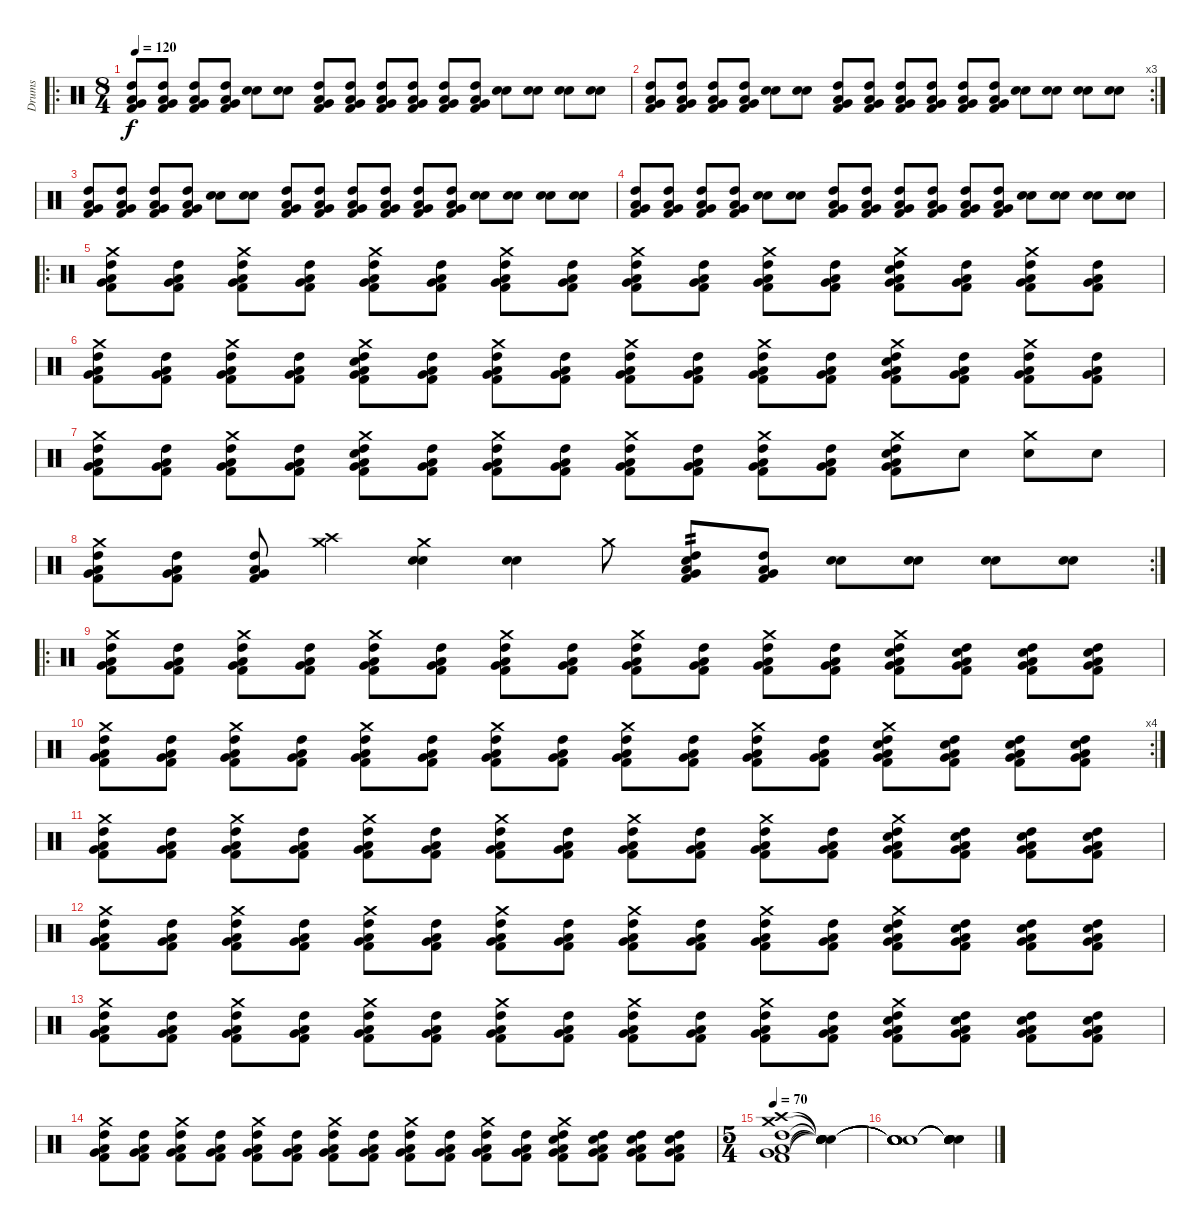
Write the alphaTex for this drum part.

\track ("Drums" "Drums") {instrument percussion}
\staff {score}
\articulation defaults
\ro
\ts (8 4)
\tempo 120
\clef neutral
\ks c
("High Tom (hit)" "Low Tom (hit)" "Very Low Tom (hit)" "Kick (hit) 2").8{dy f} ("High Tom (hit)" "Low Tom (hit)" "Very Low Tom (hit)" "Kick (hit) 2").8 ("High Tom (hit)" "Low Tom (hit)" "Very Low Tom (hit)" "Kick (hit) 2").8 ("High Tom (hit)" "Low Tom (hit)" "Very Low Tom (hit)" "Kick (hit) 2").8 ("Snare (hit) 2" "Electric Snare (hit)").8 ("Snare (hit) 2" "Electric Snare (hit)").8 ("High Tom (hit)" "Low Tom (hit)" "Very Low Tom (hit)" "Kick (hit) 2").8 ("High Tom (hit)" "Low Tom (hit)" "Very Low Tom (hit)" "Kick (hit) 2").8 ("High Tom (hit)" "Low Tom (hit)" "Very Low Tom (hit)" "Kick (hit) 2").8 ("High Tom (hit)" "Low Tom (hit)" "Very Low Tom (hit)" "Kick (hit) 2").8 ("High Tom (hit)" "Low Tom (hit)" "Very Low Tom (hit)" "Kick (hit) 2").8 ("High Tom (hit)" "Low Tom (hit)" "Very Low Tom (hit)" "Kick (hit) 2").8 ("Snare (hit) 2" "Electric Snare (hit)").8 ("Snare (hit) 2" "Electric Snare (hit)").8 ("Snare (hit) 2" "Electric Snare (hit)").8 ("Snare (hit) 2" "Electric Snare (hit)").8 |
\rc 3
("High Tom (hit)" "Low Tom (hit)" "Very Low Tom (hit)" "Kick (hit) 2").8 ("High Tom (hit)" "Low Tom (hit)" "Very Low Tom (hit)" "Kick (hit) 2").8 ("High Tom (hit)" "Low Tom (hit)" "Very Low Tom (hit)" "Kick (hit) 2").8 ("High Tom (hit)" "Low Tom (hit)" "Very Low Tom (hit)" "Kick (hit) 2").8 ("Snare (hit) 2" "Electric Snare (hit)").8 ("Snare (hit) 2" "Electric Snare (hit)").8 ("High Tom (hit)" "Low Tom (hit)" "Very Low Tom (hit)" "Kick (hit) 2").8 ("High Tom (hit)" "Low Tom (hit)" "Very Low Tom (hit)" "Kick (hit) 2").8 ("High Tom (hit)" "Low Tom (hit)" "Very Low Tom (hit)" "Kick (hit) 2").8 ("High Tom (hit)" "Low Tom (hit)" "Very Low Tom (hit)" "Kick (hit) 2").8 ("High Tom (hit)" "Low Tom (hit)" "Very Low Tom (hit)" "Kick (hit) 2").8 ("High Tom (hit)" "Low Tom (hit)" "Very Low Tom (hit)" "Kick (hit) 2").8 ("Snare (hit) 2" "Electric Snare (hit)").8 ("Snare (hit) 2" "Electric Snare (hit)").8 ("Snare (hit) 2" "Electric Snare (hit)").8 ("Snare (hit) 2" "Electric Snare (hit)").8 |
("High Tom (hit)" "Low Tom (hit)" "Very Low Tom (hit)" "Kick (hit) 2").8 ("High Tom (hit)" "Low Tom (hit)" "Very Low Tom (hit)" "Kick (hit) 2").8 ("High Tom (hit)" "Low Tom (hit)" "Very Low Tom (hit)" "Kick (hit) 2").8 ("High Tom (hit)" "Low Tom (hit)" "Very Low Tom (hit)" "Kick (hit) 2").8 ("Snare (hit) 2" "Electric Snare (hit)").8 ("Snare (hit) 2" "Electric Snare (hit)").8 ("High Tom (hit)" "Low Tom (hit)" "Very Low Tom (hit)" "Kick (hit) 2").8 ("High Tom (hit)" "Low Tom (hit)" "Very Low Tom (hit)" "Kick (hit) 2").8 ("High Tom (hit)" "Low Tom (hit)" "Very Low Tom (hit)" "Kick (hit) 2").8 ("High Tom (hit)" "Low Tom (hit)" "Very Low Tom (hit)" "Kick (hit) 2").8 ("High Tom (hit)" "Low Tom (hit)" "Very Low Tom (hit)" "Kick (hit) 2").8 ("High Tom (hit)" "Low Tom (hit)" "Very Low Tom (hit)" "Kick (hit) 2").8 ("Snare (hit) 2" "Electric Snare (hit)").8 ("Snare (hit) 2" "Electric Snare (hit)").8 ("Snare (hit) 2" "Electric Snare (hit)").8 ("Snare (hit) 2" "Electric Snare (hit)").8 |
("High Tom (hit)" "Low Tom (hit)" "Very Low Tom (hit)" "Kick (hit) 2").8 ("High Tom (hit)" "Low Tom (hit)" "Very Low Tom (hit)" "Kick (hit) 2").8 ("High Tom (hit)" "Low Tom (hit)" "Very Low Tom (hit)" "Kick (hit) 2").8 ("High Tom (hit)" "Low Tom (hit)" "Very Low Tom (hit)" "Kick (hit) 2").8 ("Snare (hit) 2" "Electric Snare (hit)").8 ("Snare (hit) 2" "Electric Snare (hit)").8 ("High Tom (hit)" "Low Tom (hit)" "Very Low Tom (hit)" "Kick (hit) 2").8 ("High Tom (hit)" "Low Tom (hit)" "Very Low Tom (hit)" "Kick (hit) 2").8 ("High Tom (hit)" "Low Tom (hit)" "Very Low Tom (hit)" "Kick (hit) 2").8 ("High Tom (hit)" "Low Tom (hit)" "Very Low Tom (hit)" "Kick (hit) 2").8 ("High Tom (hit)" "Low Tom (hit)" "Very Low Tom (hit)" "Kick (hit) 2").8 ("High Tom (hit)" "Low Tom (hit)" "Very Low Tom (hit)" "Kick (hit) 2").8 ("Snare (hit) 2" "Electric Snare (hit)").8 ("Snare (hit) 2" "Electric Snare (hit)").8 ("Snare (hit) 2" "Electric Snare (hit)").8 ("Snare (hit) 2" "Electric Snare (hit)").8 |
\ro
("Crash medium (hit)" "High Tom (hit)" "Low Tom (hit)" "Very Low Tom (hit)" "Kick (hit) 2").8 ("High Tom (hit)" "Low Tom (hit)" "Very Low Tom (hit)" "Kick (hit) 2").8 ("Crash medium (hit)" "High Tom (hit)" "Low Tom (hit)" "Very Low Tom (hit)" "Kick (hit) 2").8 ("High Tom (hit)" "Low Tom (hit)" "Very Low Tom (hit)" "Kick (hit) 2").8 ("Crash medium (hit)" "High Tom (hit)" "Low Tom (hit)" "Very Low Tom (hit)" "Kick (hit) 2").8 ("High Tom (hit)" "Low Tom (hit)" "Very Low Tom (hit)" "Kick (hit) 2").8 ("Crash medium (hit)" "High Tom (hit)" "Low Tom (hit)" "Very Low Tom (hit)" "Kick (hit) 2").8 ("High Tom (hit)" "Low Tom (hit)" "Very Low Tom (hit)" "Kick (hit) 2").8 ("Crash medium (hit)" "High Tom (hit)" "Low Tom (hit)" "Very Low Tom (hit)" "Kick (hit) 2").8 ("High Tom (hit)" "Low Tom (hit)" "Very Low Tom (hit)" "Kick (hit) 2").8 ("Crash medium (hit)" "High Tom (hit)" "Low Tom (hit)" "Very Low Tom (hit)" "Kick (hit) 2").8 ("High Tom (hit)" "Low Tom (hit)" "Very Low Tom (hit)" "Kick (hit) 2").8 ("Crash medium (hit)" "Snare (hit) 2" "High Tom (hit)" "Low Tom (hit)" "Very Low Tom (hit)" "Kick (hit) 2").8 ("High Tom (hit)" "Low Tom (hit)" "Very Low Tom (hit)" "Kick (hit) 2").8 ("Crash medium (hit)" "High Tom (hit)" "Low Tom (hit)" "Very Low Tom (hit)" "Kick (hit) 2").8 ("High Tom (hit)" "Low Tom (hit)" "Very Low Tom (hit)" "Kick (hit) 2").8 |
("Crash medium (hit)" "High Tom (hit)" "Low Tom (hit)" "Very Low Tom (hit)" "Kick (hit) 2").8 ("High Tom (hit)" "Low Tom (hit)" "Very Low Tom (hit)" "Kick (hit) 2").8 ("Crash medium (hit)" "High Tom (hit)" "Low Tom (hit)" "Very Low Tom (hit)" "Kick (hit) 2").8 ("High Tom (hit)" "Low Tom (hit)" "Very Low Tom (hit)" "Kick (hit) 2").8 ("Crash medium (hit)" "Snare (hit) 2" "High Tom (hit)" "Low Tom (hit)" "Very Low Tom (hit)" "Kick (hit) 2").8 ("High Tom (hit)" "Low Tom (hit)" "Very Low Tom (hit)" "Kick (hit) 2").8 ("Crash medium (hit)" "High Tom (hit)" "Low Tom (hit)" "Very Low Tom (hit)" "Kick (hit) 2").8 ("High Tom (hit)" "Low Tom (hit)" "Very Low Tom (hit)" "Kick (hit) 2").8 ("Crash medium (hit)" "High Tom (hit)" "Low Tom (hit)" "Very Low Tom (hit)" "Kick (hit) 2").8 ("High Tom (hit)" "Low Tom (hit)" "Very Low Tom (hit)" "Kick (hit) 2").8 ("Crash medium (hit)" "High Tom (hit)" "Low Tom (hit)" "Very Low Tom (hit)" "Kick (hit) 2").8 ("High Tom (hit)" "Low Tom (hit)" "Very Low Tom (hit)" "Kick (hit) 2").8 ("Crash medium (hit)" "Snare (hit) 2" "High Tom (hit)" "Low Tom (hit)" "Very Low Tom (hit)" "Kick (hit) 2").8 ("High Tom (hit)" "Low Tom (hit)" "Very Low Tom (hit)" "Kick (hit) 2").8 ("Crash medium (hit)" "High Tom (hit)" "Low Tom (hit)" "Very Low Tom (hit)" "Kick (hit) 2").8 ("High Tom (hit)" "Low Tom (hit)" "Very Low Tom (hit)" "Kick (hit) 2").8 |
("Crash medium (hit)" "High Tom (hit)" "Low Tom (hit)" "Very Low Tom (hit)" "Kick (hit) 2").8 ("High Tom (hit)" "Low Tom (hit)" "Very Low Tom (hit)" "Kick (hit) 2").8 ("Crash medium (hit)" "High Tom (hit)" "Low Tom (hit)" "Very Low Tom (hit)" "Kick (hit) 2").8 ("High Tom (hit)" "Low Tom (hit)" "Very Low Tom (hit)" "Kick (hit) 2").8 ("Crash medium (hit)" "Snare (hit) 2" "High Tom (hit)" "Low Tom (hit)" "Very Low Tom (hit)" "Kick (hit) 2").8 ("High Tom (hit)" "Low Tom (hit)" "Very Low Tom (hit)" "Kick (hit) 2").8 ("Crash medium (hit)" "High Tom (hit)" "Low Tom (hit)" "Very Low Tom (hit)" "Kick (hit) 2").8 ("High Tom (hit)" "Low Tom (hit)" "Very Low Tom (hit)" "Kick (hit) 2").8 ("Crash medium (hit)" "High Tom (hit)" "Low Tom (hit)" "Very Low Tom (hit)" "Kick (hit) 2").8 ("High Tom (hit)" "Low Tom (hit)" "Very Low Tom (hit)" "Kick (hit) 2").8 ("Crash medium (hit)" "High Tom (hit)" "Low Tom (hit)" "Very Low Tom (hit)" "Kick (hit) 2").8 ("High Tom (hit)" "Low Tom (hit)" "Very Low Tom (hit)" "Kick (hit) 2").8 ("Crash medium (hit)" "Snare (hit) 2" "High Tom (hit)" "Low Tom (hit)" "Very Low Tom (hit)" "Kick (hit) 2").8 "Snare (hit) 2".8 ("Crash medium (hit)" "Snare (hit) 2").8 "Snare (hit) 2".8 |
\rc 2
("Crash medium (hit)" "High Tom (hit)" "Low Tom (hit)" "Very Low Tom (hit)" "Kick (hit) 2").8 ("High Tom (hit)" "Low Tom (hit)" "Very Low Tom (hit)" "Kick (hit) 2").8 ("High Tom (hit)" "Low Tom (hit)" "Very Low Tom (hit)" "Kick (hit) 2").8 ("Crash medium (hit)" "Crash high (hit)").4 ("Crash medium (hit)" "Snare (hit) 2" "Electric Snare (hit)").4 ("Snare (hit) 2" "Electric Snare (hit)").4 "Crash medium (hit)".8 ("Snare (hit) 2" "High Tom (hit)" "Low Tom (hit)" "Very Low Tom (hit)" "Kick (hit) 2").8{tp 2} ("High Tom (hit)" "Low Tom (hit)" "Very Low Tom (hit)" "Kick (hit) 2").8 ("Snare (hit) 2" "Electric Snare (hit)").8 ("Snare (hit) 2" "Electric Snare (hit)").8 ("Snare (hit) 2" "Electric Snare (hit)").8 ("Snare (hit) 2" "Electric Snare (hit)").8 |
\ro
("Crash medium (hit)" "High Tom (hit)" "Low Tom (hit)" "Very Low Tom (hit)" "Kick (hit) 2").8 ("High Tom (hit)" "Low Tom (hit)" "Very Low Tom (hit)" "Kick (hit) 2").8 ("Crash medium (hit)" "High Tom (hit)" "Low Tom (hit)" "Very Low Tom (hit)" "Kick (hit) 2").8 ("High Tom (hit)" "Low Tom (hit)" "Very Low Tom (hit)" "Kick (hit) 2").8 ("Crash medium (hit)" "High Tom (hit)" "Low Tom (hit)" "Very Low Tom (hit)" "Kick (hit) 2").8 ("High Tom (hit)" "Low Tom (hit)" "Very Low Tom (hit)" "Kick (hit) 2").8 ("Crash medium (hit)" "High Tom (hit)" "Low Tom (hit)" "Very Low Tom (hit)" "Kick (hit) 2").8 ("High Tom (hit)" "Low Tom (hit)" "Very Low Tom (hit)" "Kick (hit) 2").8 ("Crash medium (hit)" "High Tom (hit)" "Low Tom (hit)" "Very Low Tom (hit)" "Kick (hit) 2").8 ("High Tom (hit)" "Low Tom (hit)" "Very Low Tom (hit)" "Kick (hit) 2").8 ("Crash medium (hit)" "High Tom (hit)" "Low Tom (hit)" "Very Low Tom (hit)" "Kick (hit) 2").8 ("High Tom (hit)" "Low Tom (hit)" "Very Low Tom (hit)" "Kick (hit) 2").8 ("Crash medium (hit)" "Snare (hit) 2" "High Tom (hit)" "Low Tom (hit)" "Very Low Tom (hit)" "Kick (hit) 2").8 ("Snare (hit) 2" "High Tom (hit)" "Low Tom (hit)" "Very Low Tom (hit)" "Kick (hit) 2").8 ("Snare (hit) 2" "High Tom (hit)" "Low Tom (hit)" "Very Low Tom (hit)" "Kick (hit) 2").8 ("Snare (hit) 2" "High Tom (hit)" "Low Tom (hit)" "Very Low Tom (hit)" "Kick (hit) 2").8 |
\rc 4
("Crash medium (hit)" "High Tom (hit)" "Low Tom (hit)" "Very Low Tom (hit)" "Kick (hit) 2").8 ("High Tom (hit)" "Low Tom (hit)" "Very Low Tom (hit)" "Kick (hit) 2").8 ("Crash medium (hit)" "High Tom (hit)" "Low Tom (hit)" "Very Low Tom (hit)" "Kick (hit) 2").8 ("High Tom (hit)" "Low Tom (hit)" "Very Low Tom (hit)" "Kick (hit) 2").8 ("Crash medium (hit)" "High Tom (hit)" "Low Tom (hit)" "Very Low Tom (hit)" "Kick (hit) 2").8 ("High Tom (hit)" "Low Tom (hit)" "Very Low Tom (hit)" "Kick (hit) 2").8 ("Crash medium (hit)" "High Tom (hit)" "Low Tom (hit)" "Very Low Tom (hit)" "Kick (hit) 2").8 ("High Tom (hit)" "Low Tom (hit)" "Very Low Tom (hit)" "Kick (hit) 2").8 ("Crash medium (hit)" "High Tom (hit)" "Low Tom (hit)" "Very Low Tom (hit)" "Kick (hit) 2").8 ("High Tom (hit)" "Low Tom (hit)" "Very Low Tom (hit)" "Kick (hit) 2").8 ("Crash medium (hit)" "High Tom (hit)" "Low Tom (hit)" "Very Low Tom (hit)" "Kick (hit) 2").8 ("High Tom (hit)" "Low Tom (hit)" "Very Low Tom (hit)" "Kick (hit) 2").8 ("Crash medium (hit)" "Snare (hit) 2" "High Tom (hit)" "Low Tom (hit)" "Very Low Tom (hit)" "Kick (hit) 2").8 ("Snare (hit) 2" "High Tom (hit)" "Low Tom (hit)" "Very Low Tom (hit)" "Kick (hit) 2").8 ("Snare (hit) 2" "High Tom (hit)" "Low Tom (hit)" "Very Low Tom (hit)" "Kick (hit) 2").8 ("Snare (hit) 2" "High Tom (hit)" "Low Tom (hit)" "Very Low Tom (hit)" "Kick (hit) 2").8 |
("Crash medium (hit)" "High Tom (hit)" "Low Tom (hit)" "Very Low Tom (hit)" "Kick (hit) 2").8 ("High Tom (hit)" "Low Tom (hit)" "Very Low Tom (hit)" "Kick (hit) 2").8 ("Crash medium (hit)" "High Tom (hit)" "Low Tom (hit)" "Very Low Tom (hit)" "Kick (hit) 2").8 ("High Tom (hit)" "Low Tom (hit)" "Very Low Tom (hit)" "Kick (hit) 2").8 ("Crash medium (hit)" "High Tom (hit)" "Low Tom (hit)" "Very Low Tom (hit)" "Kick (hit) 2").8 ("High Tom (hit)" "Low Tom (hit)" "Very Low Tom (hit)" "Kick (hit) 2").8 ("Crash medium (hit)" "High Tom (hit)" "Low Tom (hit)" "Very Low Tom (hit)" "Kick (hit) 2").8 ("High Tom (hit)" "Low Tom (hit)" "Very Low Tom (hit)" "Kick (hit) 2").8 ("Crash medium (hit)" "High Tom (hit)" "Low Tom (hit)" "Very Low Tom (hit)" "Kick (hit) 2").8 ("High Tom (hit)" "Low Tom (hit)" "Very Low Tom (hit)" "Kick (hit) 2").8 ("Crash medium (hit)" "High Tom (hit)" "Low Tom (hit)" "Very Low Tom (hit)" "Kick (hit) 2").8 ("High Tom (hit)" "Low Tom (hit)" "Very Low Tom (hit)" "Kick (hit) 2").8 ("Crash medium (hit)" "Snare (hit) 2" "High Tom (hit)" "Low Tom (hit)" "Very Low Tom (hit)" "Kick (hit) 2").8 ("Snare (hit) 2" "High Tom (hit)" "Low Tom (hit)" "Very Low Tom (hit)" "Kick (hit) 2").8 ("Snare (hit) 2" "High Tom (hit)" "Low Tom (hit)" "Very Low Tom (hit)" "Kick (hit) 2").8 ("Snare (hit) 2" "High Tom (hit)" "Low Tom (hit)" "Very Low Tom (hit)" "Kick (hit) 2").8 |
("Crash medium (hit)" "High Tom (hit)" "Low Tom (hit)" "Very Low Tom (hit)" "Kick (hit) 2").8 ("High Tom (hit)" "Low Tom (hit)" "Very Low Tom (hit)" "Kick (hit) 2").8 ("Crash medium (hit)" "High Tom (hit)" "Low Tom (hit)" "Very Low Tom (hit)" "Kick (hit) 2").8 ("High Tom (hit)" "Low Tom (hit)" "Very Low Tom (hit)" "Kick (hit) 2").8 ("Crash medium (hit)" "High Tom (hit)" "Low Tom (hit)" "Very Low Tom (hit)" "Kick (hit) 2").8 ("High Tom (hit)" "Low Tom (hit)" "Very Low Tom (hit)" "Kick (hit) 2").8 ("Crash medium (hit)" "High Tom (hit)" "Low Tom (hit)" "Very Low Tom (hit)" "Kick (hit) 2").8 ("High Tom (hit)" "Low Tom (hit)" "Very Low Tom (hit)" "Kick (hit) 2").8 ("Crash medium (hit)" "High Tom (hit)" "Low Tom (hit)" "Very Low Tom (hit)" "Kick (hit) 2").8 ("High Tom (hit)" "Low Tom (hit)" "Very Low Tom (hit)" "Kick (hit) 2").8 ("Crash medium (hit)" "High Tom (hit)" "Low Tom (hit)" "Very Low Tom (hit)" "Kick (hit) 2").8 ("High Tom (hit)" "Low Tom (hit)" "Very Low Tom (hit)" "Kick (hit) 2").8 ("Crash medium (hit)" "Snare (hit) 2" "High Tom (hit)" "Low Tom (hit)" "Very Low Tom (hit)" "Kick (hit) 2").8 ("Snare (hit) 2" "High Tom (hit)" "Low Tom (hit)" "Very Low Tom (hit)" "Kick (hit) 2").8 ("Snare (hit) 2" "High Tom (hit)" "Low Tom (hit)" "Very Low Tom (hit)" "Kick (hit) 2").8 ("Snare (hit) 2" "High Tom (hit)" "Low Tom (hit)" "Very Low Tom (hit)" "Kick (hit) 2").8 |
("Crash medium (hit)" "High Tom (hit)" "Low Tom (hit)" "Very Low Tom (hit)" "Kick (hit) 2").8 ("High Tom (hit)" "Low Tom (hit)" "Very Low Tom (hit)" "Kick (hit) 2").8 ("Crash medium (hit)" "High Tom (hit)" "Low Tom (hit)" "Very Low Tom (hit)" "Kick (hit) 2").8 ("High Tom (hit)" "Low Tom (hit)" "Very Low Tom (hit)" "Kick (hit) 2").8 ("Crash medium (hit)" "High Tom (hit)" "Low Tom (hit)" "Very Low Tom (hit)" "Kick (hit) 2").8 ("High Tom (hit)" "Low Tom (hit)" "Very Low Tom (hit)" "Kick (hit) 2").8 ("Crash medium (hit)" "High Tom (hit)" "Low Tom (hit)" "Very Low Tom (hit)" "Kick (hit) 2").8 ("High Tom (hit)" "Low Tom (hit)" "Very Low Tom (hit)" "Kick (hit) 2").8 ("Crash medium (hit)" "High Tom (hit)" "Low Tom (hit)" "Very Low Tom (hit)" "Kick (hit) 2").8 ("High Tom (hit)" "Low Tom (hit)" "Very Low Tom (hit)" "Kick (hit) 2").8 ("Crash medium (hit)" "High Tom (hit)" "Low Tom (hit)" "Very Low Tom (hit)" "Kick (hit) 2").8 ("High Tom (hit)" "Low Tom (hit)" "Very Low Tom (hit)" "Kick (hit) 2").8 ("Crash medium (hit)" "Snare (hit) 2" "High Tom (hit)" "Low Tom (hit)" "Very Low Tom (hit)" "Kick (hit) 2").8 ("Snare (hit) 2" "High Tom (hit)" "Low Tom (hit)" "Very Low Tom (hit)" "Kick (hit) 2").8 ("Snare (hit) 2" "High Tom (hit)" "Low Tom (hit)" "Very Low Tom (hit)" "Kick (hit) 2").8 ("Snare (hit) 2" "High Tom (hit)" "Low Tom (hit)" "Very Low Tom (hit)" "Kick (hit) 2").8 |
("Crash medium (hit)" "High Tom (hit)" "Low Tom (hit)" "Very Low Tom (hit)" "Kick (hit) 2").8 ("High Tom (hit)" "Low Tom (hit)" "Very Low Tom (hit)" "Kick (hit) 2").8 ("Crash medium (hit)" "High Tom (hit)" "Low Tom (hit)" "Very Low Tom (hit)" "Kick (hit) 2").8 ("High Tom (hit)" "Low Tom (hit)" "Very Low Tom (hit)" "Kick (hit) 2").8 ("Crash medium (hit)" "High Tom (hit)" "Low Tom (hit)" "Very Low Tom (hit)" "Kick (hit) 2").8 ("High Tom (hit)" "Low Tom (hit)" "Very Low Tom (hit)" "Kick (hit) 2").8 ("Crash medium (hit)" "High Tom (hit)" "Low Tom (hit)" "Very Low Tom (hit)" "Kick (hit) 2").8 ("High Tom (hit)" "Low Tom (hit)" "Very Low Tom (hit)" "Kick (hit) 2").8 ("Crash medium (hit)" "High Tom (hit)" "Low Tom (hit)" "Very Low Tom (hit)" "Kick (hit) 2").8 ("High Tom (hit)" "Low Tom (hit)" "Very Low Tom (hit)" "Kick (hit) 2").8 ("Crash medium (hit)" "High Tom (hit)" "Low Tom (hit)" "Very Low Tom (hit)" "Kick (hit) 2").8 ("High Tom (hit)" "Low Tom (hit)" "Very Low Tom (hit)" "Kick (hit) 2").8 ("Crash medium (hit)" "Snare (hit) 2" "High Tom (hit)" "Low Tom (hit)" "Very Low Tom (hit)" "Kick (hit) 2").8 ("Snare (hit) 2" "High Tom (hit)" "Low Tom (hit)" "Very Low Tom (hit)" "Kick (hit) 2").8 ("Snare (hit) 2" "High Tom (hit)" "Low Tom (hit)" "Very Low Tom (hit)" "Kick (hit) 2").8 ("Snare (hit) 2" "High Tom (hit)" "Low Tom (hit)" "Very Low Tom (hit)" "Kick (hit) 2").8 |
\ts (5 4)
\tempo 70
("Crash medium (hit)" "Crash high (hit)" "High Tom (hit)" "Low Tom (hit)" "Very Low Tom (hit)" "Kick (hit) 2").1 ("Snare (hit)"{t} "Snare (hit)"{t} "Snare (hit)"{t} "Snare (hit)"{t} "Snare (hit)"{t} "Snare (hit)"{t}).4 |
("Snare (hit)"{t} "Snare (hit)"{t} "Snare (hit)"{t} "Snare (hit)"{t} "Snare (hit)"{t} "Snare (hit)"{t}).1 ("Snare (hit)"{t} "Snare (hit)"{t} "Snare (hit)"{t} "Snare (hit)"{t} "Snare (hit)"{t} "Snare (hit)"{t}).4
